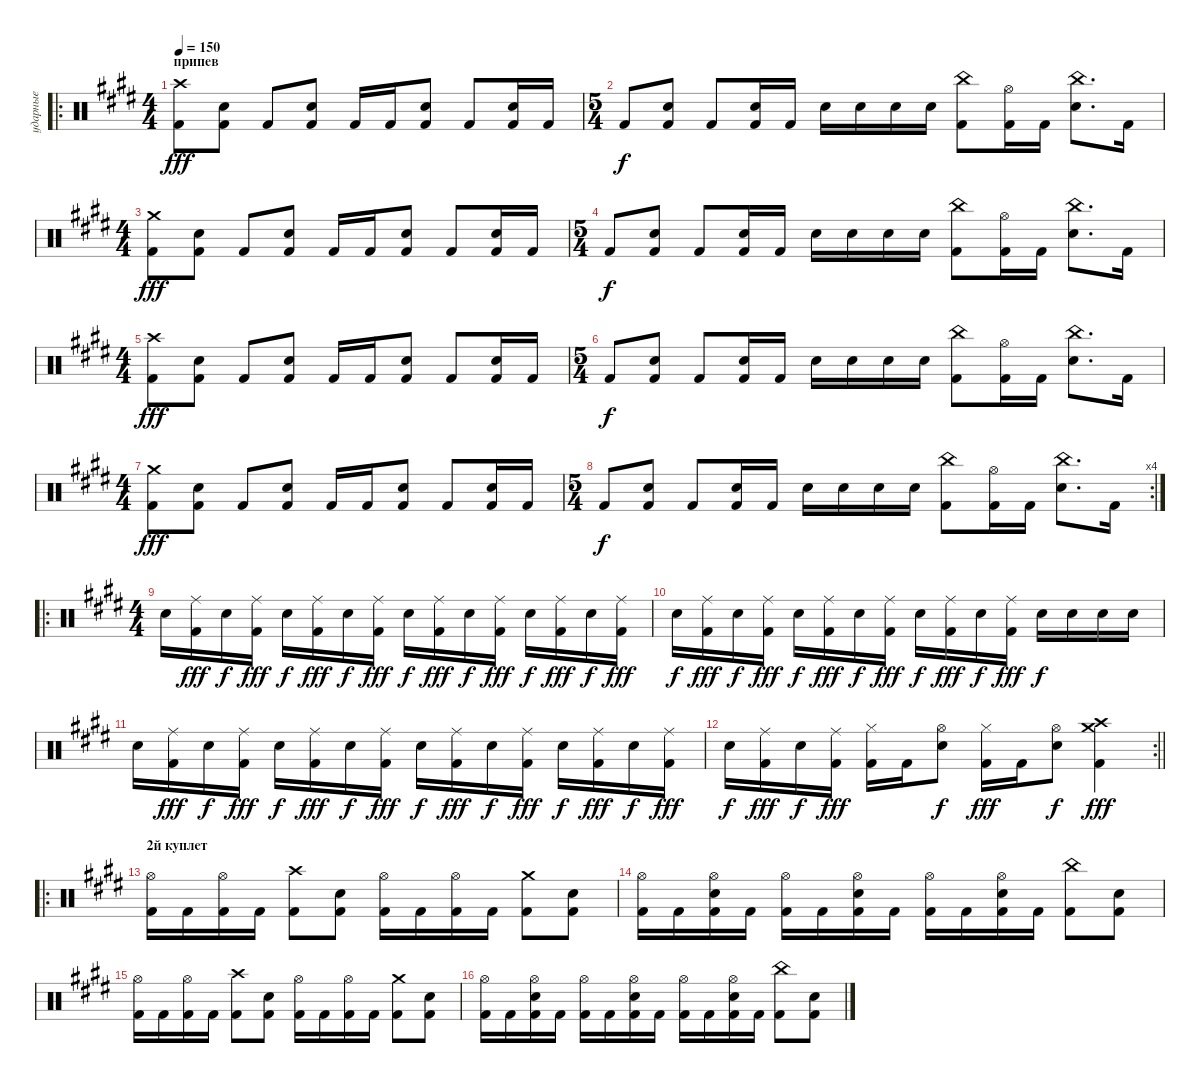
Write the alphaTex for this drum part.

\track ("ударные" "ударные") {instrument percussion}
\staff {score}
\articulation defaults
\ro
\ts (4 4)
\section ("" "припев")
\tempo 150
\clef neutral
\ks c#minor
("Crash high (hit)" "Kick (hit) 2").8{dy fff} ("Electric Snare (hit)" "Kick (hit) 2").8 "Kick (hit) 2".8 ("Electric Snare (hit)" "Kick (hit) 2").8 "Kick (hit) 2".16 "Kick (hit) 2".16 ("Electric Snare (hit)" "Kick (hit) 2").8 "Kick (hit) 2".8 ("Electric Snare (hit)" "Kick (hit) 2").16 "Kick (hit) 2".16 |
\ts (5 4)
"Kick (hit) 2".8{dy f} ("Kick (hit) 2" "Electric Snare (hit)").8 "Kick (hit) 2".8 ("Kick (hit) 2" "Electric Snare (hit)").16 "Kick (hit) 2".16 "Electric Snare (hit)".16 "Electric Snare (hit)".16 "Electric Snare (hit)".16 "Electric Snare (hit)".16 ("Kick (hit) 2" "China (hit)").8 ("Kick (hit) 2" "Hi-Hat (open)").16 "Kick (hit) 2".16 ("Electric Snare (hit)" "China (hit)").8{d} "Kick (hit) 2".16 |
\ts (4 4)
("Crash medium (hit)" "Kick (hit) 2").8{dy fff} ("Electric Snare (hit)" "Kick (hit) 2").8 "Kick (hit) 2".8 ("Electric Snare (hit)" "Kick (hit) 2").8 "Kick (hit) 2".16 "Kick (hit) 2".16 ("Electric Snare (hit)" "Kick (hit) 2").8 "Kick (hit) 2".8 ("Electric Snare (hit)" "Kick (hit) 2").16 "Kick (hit) 2".16 |
\ts (5 4)
"Kick (hit) 2".8{dy f} ("Kick (hit) 2" "Electric Snare (hit)").8 "Kick (hit) 2".8 ("Kick (hit) 2" "Electric Snare (hit)").16 "Kick (hit) 2".16 "Electric Snare (hit)".16 "Electric Snare (hit)".16 "Electric Snare (hit)".16 "Electric Snare (hit)".16 ("Kick (hit) 2" "China (hit)").8 ("Kick (hit) 2" "Hi-Hat (open)").16 "Kick (hit) 2".16 ("Electric Snare (hit)" "China (hit)").8{d} "Kick (hit) 2".16 |
\ts (4 4)
("Crash high (hit)" "Kick (hit) 2").8{dy fff} ("Electric Snare (hit)" "Kick (hit) 2").8 "Kick (hit) 2".8 ("Electric Snare (hit)" "Kick (hit) 2").8 "Kick (hit) 2".16 "Kick (hit) 2".16 ("Electric Snare (hit)" "Kick (hit) 2").8 "Kick (hit) 2".8 ("Electric Snare (hit)" "Kick (hit) 2").16 "Kick (hit) 2".16 |
\ts (5 4)
"Kick (hit) 2".8{dy f} ("Kick (hit) 2" "Electric Snare (hit)").8 "Kick (hit) 2".8 ("Kick (hit) 2" "Electric Snare (hit)").16 "Kick (hit) 2".16 "Electric Snare (hit)".16 "Electric Snare (hit)".16 "Electric Snare (hit)".16 "Electric Snare (hit)".16 ("Kick (hit) 2" "China (hit)").8 ("Kick (hit) 2" "Hi-Hat (open)").16 "Kick (hit) 2".16 ("Electric Snare (hit)" "China (hit)").8{d} "Kick (hit) 2".16 |
\ts (4 4)
("Crash medium (hit)" "Kick (hit) 2").8{dy fff} ("Electric Snare (hit)" "Kick (hit) 2").8 "Kick (hit) 2".8 ("Electric Snare (hit)" "Kick (hit) 2").8 "Kick (hit) 2".16 "Kick (hit) 2".16 ("Electric Snare (hit)" "Kick (hit) 2").8 "Kick (hit) 2".8 ("Electric Snare (hit)" "Kick (hit) 2").16 "Kick (hit) 2".16 |
\rc 4
\ts (5 4)
"Kick (hit) 2".8{dy f} ("Kick (hit) 2" "Electric Snare (hit)").8 "Kick (hit) 2".8 ("Kick (hit) 2" "Electric Snare (hit)").16 "Kick (hit) 2".16 "Electric Snare (hit)".16 "Electric Snare (hit)".16 "Electric Snare (hit)".16 "Electric Snare (hit)".16 ("Kick (hit) 2" "China (hit)").8 ("Kick (hit) 2" "Hi-Hat (open)").16 "Kick (hit) 2".16 ("Electric Snare (hit)" "China (hit)").8{d} "Kick (hit) 2".16 |
\ro
\ts (4 4)
"Electric Snare (hit)".16 ("Ride (middle)" "Kick (hit) 2").16{dy fff} "Electric Snare (hit)".16{dy f} ("Ride (middle)" "Kick (hit) 2").16{dy fff} "Electric Snare (hit)".16{dy f} ("Ride (middle)" "Kick (hit) 2").16{dy fff} "Electric Snare (hit)".16{dy f} ("Ride (middle)" "Kick (hit) 2").16{dy fff} "Electric Snare (hit)".16{dy f} ("Ride (middle)" "Kick (hit) 2").16{dy fff} "Electric Snare (hit)".16{dy f} ("Ride (middle)" "Kick (hit) 2").16{dy fff} "Electric Snare (hit)".16{dy f} ("Ride (middle)" "Kick (hit) 2").16{dy fff} "Electric Snare (hit)".16{dy f} ("Ride (middle)" "Kick (hit) 2").16{dy fff} |
"Electric Snare (hit)".16{dy f} ("Ride (middle)" "Kick (hit) 2").16{dy fff} "Electric Snare (hit)".16{dy f} ("Ride (middle)" "Kick (hit) 2").16{dy fff} "Electric Snare (hit)".16{dy f} ("Ride (middle)" "Kick (hit) 2").16{dy fff} "Electric Snare (hit)".16{dy f} ("Ride (middle)" "Kick (hit) 2").16{dy fff} "Electric Snare (hit)".16{dy f} ("Ride (middle)" "Kick (hit) 2").16{dy fff} "Electric Snare (hit)".16{dy f} ("Ride (middle)" "Kick (hit) 2").16{dy fff} "Electric Snare (hit)".16{dy f} "Electric Snare (hit)".16 "Electric Snare (hit)".16 "Electric Snare (hit)".16 |
"Electric Snare (hit)".16 ("Ride (middle)" "Kick (hit) 2").16{dy fff} "Electric Snare (hit)".16{dy f} ("Ride (middle)" "Kick (hit) 2").16{dy fff} "Electric Snare (hit)".16{dy f} ("Ride (middle)" "Kick (hit) 2").16{dy fff} "Electric Snare (hit)".16{dy f} ("Ride (middle)" "Kick (hit) 2").16{dy fff} "Electric Snare (hit)".16{dy f} ("Ride (middle)" "Kick (hit) 2").16{dy fff} "Electric Snare (hit)".16{dy f} ("Ride (middle)" "Kick (hit) 2").16{dy fff} "Electric Snare (hit)".16{dy f} ("Ride (middle)" "Kick (hit) 2").16{dy fff} "Electric Snare (hit)".16{dy f} ("Ride (middle)" "Kick (hit) 2").16{dy fff} |
\rc 2
\barLineRight lightlight "Electric Snare (hit)".16{dy f}
("Ride (middle)" "Kick (hit) 2").16{dy fff} "Electric Snare (hit)".16{dy f} ("Ride (middle)" "Kick (hit) 2").16{dy fff} ("Hi-Hat (closed)" "Kick (hit) 2").16 "Kick (hit) 2".16 ("Hi-Hat (open)" "Electric Snare (hit)").8{dy f} ("Hi-Hat (closed)" "Kick (hit) 2").16{dy fff} "Kick (hit) 2".16 ("Hi-Hat (open)" "Electric Snare (hit)").8{dy f} ("Crash medium (hit)" "Crash high (hit)" "Kick (hit) 2").4{dy fff} |
\ro
\section ("" "2й куплет")
("Hi-Hat (open)" "Kick (hit) 2").16 "Kick (hit) 2".16 ("Hi-Hat (open)" "Kick (hit) 2").16 "Kick (hit) 2".16 ("Crash high (hit)" "Kick (hit) 2").8 ("Electric Snare (hit)" "Kick (hit) 2").8 ("Hi-Hat (open)" "Kick (hit) 2").16 "Kick (hit) 2".16 ("Hi-Hat (open)" "Kick (hit) 2").16 "Kick (hit) 2".16 ("Crash medium (hit)" "Kick (hit) 2").8 ("Electric Snare (hit)" "Kick (hit) 2").8 |
("Hi-Hat (open)" "Kick (hit) 2").16 "Kick (hit) 2".16 ("Hi-Hat (open)" "Electric Snare (hit)" "Kick (hit) 2").16 "Kick (hit) 2".16 ("Hi-Hat (open)" "Kick (hit) 2").16 "Kick (hit) 2".16 ("Hi-Hat (open)" "Electric Snare (hit)" "Kick (hit) 2").16 "Kick (hit) 2".16 ("Hi-Hat (open)" "Kick (hit) 2").16 "Kick (hit) 2".16 ("Hi-Hat (open)" "Electric Snare (hit)" "Kick (hit) 2").16 "Kick (hit) 2".16 ("China (hit)" "Kick (hit) 2").8 ("Electric Snare (hit)" "Kick (hit) 2").8 |
("Hi-Hat (open)" "Kick (hit) 2").16 "Kick (hit) 2".16 ("Hi-Hat (open)" "Kick (hit) 2").16 "Kick (hit) 2".16 ("Crash high (hit)" "Kick (hit) 2").8 ("Electric Snare (hit)" "Kick (hit) 2").8 ("Hi-Hat (open)" "Kick (hit) 2").16 "Kick (hit) 2".16 ("Hi-Hat (open)" "Kick (hit) 2").16 "Kick (hit) 2".16 ("Crash medium (hit)" "Kick (hit) 2").8 ("Electric Snare (hit)" "Kick (hit) 2").8 |
("Hi-Hat (open)" "Kick (hit) 2").16 "Kick (hit) 2".16 ("Hi-Hat (open)" "Electric Snare (hit)" "Kick (hit) 2").16 "Kick (hit) 2".16 ("Hi-Hat (open)" "Kick (hit) 2").16 "Kick (hit) 2".16 ("Hi-Hat (open)" "Electric Snare (hit)" "Kick (hit) 2").16 "Kick (hit) 2".16 ("Hi-Hat (open)" "Kick (hit) 2").16 "Kick (hit) 2".16 ("Hi-Hat (open)" "Electric Snare (hit)" "Kick (hit) 2").16 "Kick (hit) 2".16 ("China (hit)" "Kick (hit) 2").8 ("Electric Snare (hit)" "Kick (hit) 2").8
